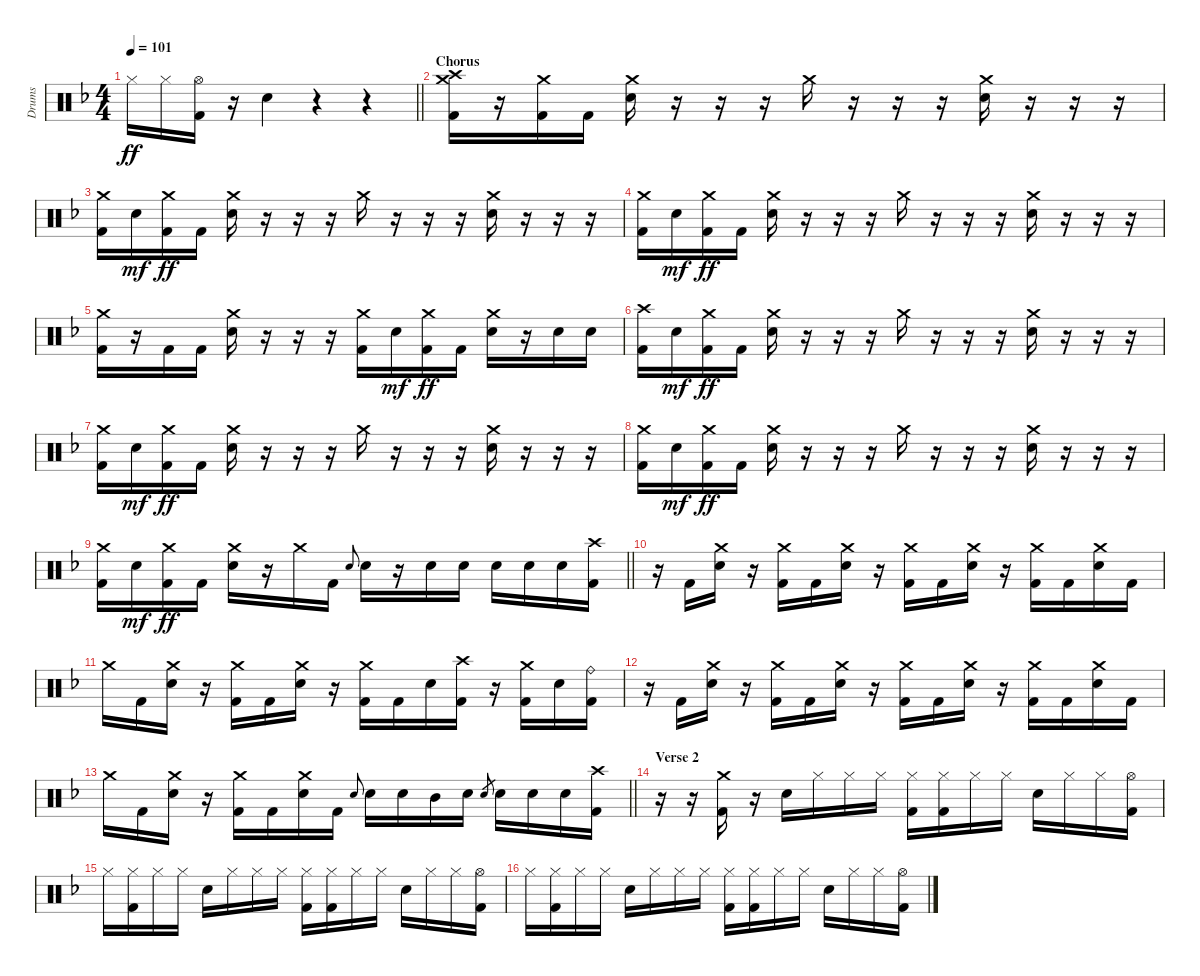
\track ("Drums" "Drums") {instrument percussion}
\staff {score}
\articulation defaults
\ts (4 4)
\tempo 101
\clef neutral
\barLineRight lightlight
\ks dminor "Hi-Hat (closed)".16{dy ff} "Hi-Hat (closed)".16
("Hi-Hat (open)" "Kick (hit) 2").16 r.16 "Electric Snare (hit)".4 r.4 r.4 |
\section ("" "Chorus")
("Crash medium (hit)" "Crash high (hit)" "Kick (hit) 2").16 r.16 ("Crash medium (hit)" "Kick (hit) 2").16 "Kick (hit) 2".16 ("Crash medium (hit)" "Electric Snare (hit)").16 r.16 r.16 r.16 "Crash medium (hit)".16 r.16 r.16 r.16 ("Crash medium (hit)" "Electric Snare (hit)").16 r.16 r.16 r.16 |
("Crash medium (hit)" "Kick (hit) 2").16 "Electric Snare (hit)".16{dy mf} ("Crash medium (hit)" "Kick (hit) 2").16{dy ff} "Kick (hit) 2".16 ("Crash medium (hit)" "Electric Snare (hit)").16 r.16 r.16 r.16 "Crash medium (hit)".16 r.16 r.16 r.16 ("Crash medium (hit)" "Electric Snare (hit)").16 r.16 r.16 r.16 |
("Crash medium (hit)" "Kick (hit) 2").16 "Electric Snare (hit)".16{dy mf} ("Crash medium (hit)" "Kick (hit) 2").16{dy ff} "Kick (hit) 2".16 ("Crash medium (hit)" "Electric Snare (hit)").16 r.16 r.16 r.16 "Crash medium (hit)".16 r.16 r.16 r.16 ("Crash medium (hit)" "Electric Snare (hit)").16 r.16 r.16 r.16 |
("Crash medium (hit)" "Kick (hit) 2").16 r.16 "Kick (hit) 2".16 "Kick (hit) 2".16 ("Crash medium (hit)" "Electric Snare (hit)").16 r.16 r.16 r.16 ("Crash medium (hit)" "Kick (hit) 2").16 "Electric Snare (hit)".16{dy mf} ("Crash medium (hit)" "Kick (hit) 2").16{dy ff} "Kick (hit) 2".16 ("Crash medium (hit)" "Electric Snare (hit)").16 r.16 "Electric Snare (hit)".16 "Electric Snare (hit)".16 |
("Crash high (hit)" "Kick (hit) 2").16 "Electric Snare (hit)".16{dy mf} ("Crash medium (hit)" "Kick (hit) 2").16{dy ff} "Kick (hit) 2".16 ("Crash medium (hit)" "Electric Snare (hit)").16 r.16 r.16 r.16 "Crash medium (hit)".16 r.16 r.16 r.16 ("Crash medium (hit)" "Electric Snare (hit)").16 r.16 r.16 r.16 |
("Crash medium (hit)" "Kick (hit) 2").16 "Electric Snare (hit)".16{dy mf} ("Crash medium (hit)" "Kick (hit) 2").16{dy ff} "Kick (hit) 2".16 ("Crash medium (hit)" "Electric Snare (hit)").16 r.16 r.16 r.16 "Crash medium (hit)".16 r.16 r.16 r.16 ("Crash medium (hit)" "Electric Snare (hit)").16 r.16 r.16 r.16 |
("Crash medium (hit)" "Kick (hit) 2").16 "Electric Snare (hit)".16{dy mf} ("Crash medium (hit)" "Kick (hit) 2").16{dy ff} "Kick (hit) 2".16 ("Crash medium (hit)" "Electric Snare (hit)").16 r.16 r.16 r.16 "Crash medium (hit)".16 r.16 r.16 r.16 ("Crash medium (hit)" "Electric Snare (hit)").16 r.16 r.16 r.16 |
\barLineRight lightlight
("Crash medium (hit)" "Kick (hit) 2").16 "Electric Snare (hit)".16{dy mf} ("Crash medium (hit)" "Kick (hit) 2").16{dy ff} "Kick (hit) 2".16 ("Crash medium (hit)" "Electric Snare (hit)").16 r.16 "Crash medium (hit)".16 "Kick (hit) 2".16 "Electric Snare (hit)".8{gr onbeat} "Electric Snare (hit)".16 r.16 "Electric Snare (hit)".16 "Electric Snare (hit)".16 "Electric Snare (hit)".16 "Electric Snare (hit)".16 "Electric Snare (hit)".16 ("Crash high (hit)" "Kick (hit) 2").16 |
r.16 "Kick (hit) 2".16 ("Crash medium (hit)" "Electric Snare (hit)").16 r.16 ("Crash medium (hit)" "Kick (hit) 2").16 "Kick (hit) 2".16 ("Crash medium (hit)" "Electric Snare (hit)").16 r.16 ("Crash medium (hit)" "Kick (hit) 2").16 "Kick (hit) 2".16 ("Crash medium (hit)" "Electric Snare (hit)").16 r.16 ("Crash medium (hit)" "Kick (hit) 2").16 "Kick (hit) 2".16 ("Crash medium (hit)" "Electric Snare (hit)").16 "Kick (hit) 2".16 |
"Crash medium (hit)".16 "Kick (hit) 2".16 ("Crash medium (hit)" "Electric Snare (hit)").16 r.16 ("Crash medium (hit)" "Kick (hit) 2").16 "Kick (hit) 2".16 ("Crash medium (hit)" "Electric Snare (hit)").16 r.16 ("Crash medium (hit)" "Kick (hit) 2").16 "Kick (hit) 2".16 "Electric Snare (hit)".16 ("Crash high (hit)" "Kick (hit) 2").16 r.16 ("Crash medium (hit)" "Kick (hit) 2").16 "Electric Snare (hit)".16 ("Ride (bell)" "Kick (hit) 2").16 |
r.16 "Kick (hit) 2".16 ("Crash medium (hit)" "Electric Snare (hit)").16 r.16 ("Crash medium (hit)" "Kick (hit) 2").16 "Kick (hit) 2".16 ("Crash medium (hit)" "Electric Snare (hit)").16 r.16 ("Crash medium (hit)" "Kick (hit) 2").16 "Kick (hit) 2".16 ("Crash medium (hit)" "Electric Snare (hit)").16 r.16 ("Crash medium (hit)" "Kick (hit) 2").16 "Kick (hit) 2".16 ("Crash medium (hit)" "Electric Snare (hit)").16 "Kick (hit) 2".16 |
\barLineRight lightlight "Crash medium (hit)".16 "Kick (hit) 2".16
("Crash medium (hit)" "Electric Snare (hit)").16 r.16 ("Crash medium (hit)" "Kick (hit) 2").16 "Kick (hit) 2".16 ("Crash medium (hit)" "Electric Snare (hit)").16 "Kick (hit) 2".16 "Electric Snare (hit)".8{gr onbeat} "Electric Snare (hit)".16 "Electric Snare (hit)".16 "Mid Tom (hit)".16 "Electric Snare (hit)".16 "Electric Snare (hit)".8{gr} "Electric Snare (hit)".16 "Electric Snare (hit)".16 "Electric Snare (hit)".16 ("Crash high (hit)" "Kick (hit) 2").16 |
\section ("" "Verse 2")
r.16 r.16 ("Crash medium (hit)" "Kick (hit) 2").16 r.16 "Electric Snare (hit)".16 "Hi-Hat (closed)".16 "Hi-Hat (closed)".16 "Hi-Hat (closed)".16 ("Hi-Hat (closed)" "Kick (hit) 2").16 ("Hi-Hat (closed)" "Kick (hit) 2").16 "Hi-Hat (closed)".16 "Hi-Hat (closed)".16 "Electric Snare (hit)".16 "Hi-Hat (closed)".16 "Hi-Hat (closed)".16 ("Hi-Hat (open)" "Kick (hit) 2").16 |
"Hi-Hat (closed)".16 ("Hi-Hat (closed)" "Kick (hit) 2").16 "Hi-Hat (closed)".16 "Hi-Hat (closed)".16 "Electric Snare (hit)".16 "Hi-Hat (closed)".16 "Hi-Hat (closed)".16 "Hi-Hat (closed)".16 ("Hi-Hat (closed)" "Kick (hit) 2").16 ("Hi-Hat (closed)" "Kick (hit) 2").16 "Hi-Hat (closed)".16 "Hi-Hat (closed)".16 "Electric Snare (hit)".16 "Hi-Hat (closed)".16 "Hi-Hat (closed)".16 ("Hi-Hat (open)" "Kick (hit) 2").16 |
"Hi-Hat (closed)".16 ("Hi-Hat (closed)" "Kick (hit) 2").16 "Hi-Hat (closed)".16 "Hi-Hat (closed)".16 "Electric Snare (hit)".16 "Hi-Hat (closed)".16 "Hi-Hat (closed)".16 "Hi-Hat (closed)".16 ("Hi-Hat (closed)" "Kick (hit) 2").16 ("Hi-Hat (closed)" "Kick (hit) 2").16 "Hi-Hat (closed)".16 "Hi-Hat (closed)".16 "Electric Snare (hit)".16 "Hi-Hat (closed)".16 "Hi-Hat (closed)".16 ("Hi-Hat (open)" "Kick (hit) 2").16
